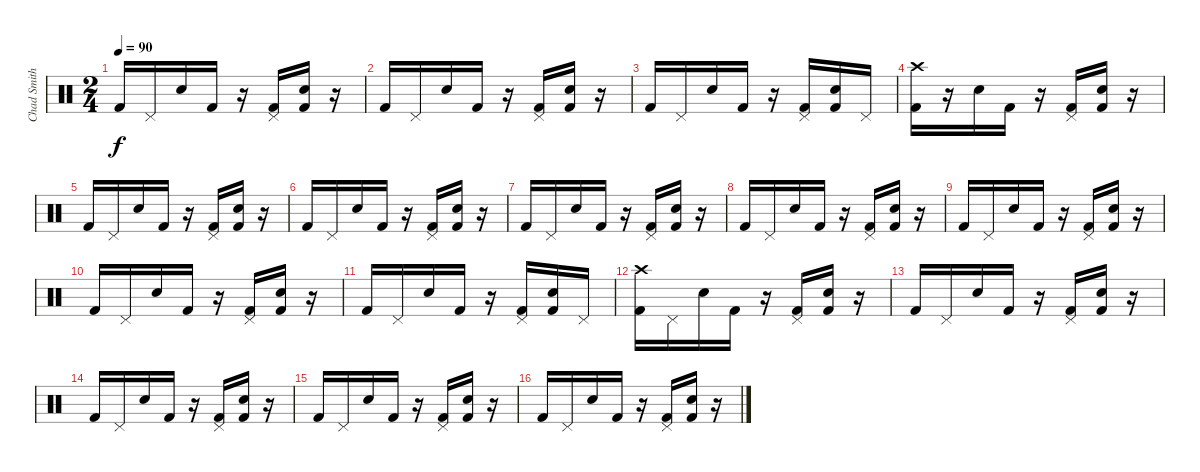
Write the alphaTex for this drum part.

\track ("Chad Smith" "Chad Smith") {instrument percussion}
\staff {score}
\articulation defaults
\ts (2 4)
\tempo 90
\clef neutral
\ks c "Kick (hit) 2".16{dy f} "Pedal Hi-Hat (hit)".16 "Electric Snare (hit)".16 "Kick (hit) 2".16
r.16 ("Pedal Hi-Hat (hit)" "Kick (hit) 2").16 ("Electric Snare (hit)" "Kick (hit) 2").16 r.16 |
"Kick (hit) 2".16 "Pedal Hi-Hat (hit)".16 "Electric Snare (hit)".16 "Kick (hit) 2".16 r.16 ("Pedal Hi-Hat (hit)" "Kick (hit) 2").16 ("Electric Snare (hit)" "Kick (hit) 2").16 r.16 |
"Kick (hit) 2".16 "Pedal Hi-Hat (hit)".16 "Electric Snare (hit)".16 "Kick (hit) 2".16 r.16 ("Pedal Hi-Hat (hit)" "Kick (hit) 2").16 ("Electric Snare (hit)" "Kick (hit) 2").16 "Pedal Hi-Hat (hit)".16 |
("Crash high (hit)" "Kick (hit) 2").16 r.16 "Electric Snare (hit)".16 "Kick (hit) 2".16 r.16 ("Pedal Hi-Hat (hit)" "Kick (hit) 2").16 ("Electric Snare (hit)" "Kick (hit) 2").16 r.16 |
"Kick (hit) 2".16 "Pedal Hi-Hat (hit)".16 "Electric Snare (hit)".16 "Kick (hit) 2".16 r.16 ("Pedal Hi-Hat (hit)" "Kick (hit) 2").16 ("Electric Snare (hit)" "Kick (hit) 2").16 r.16 |
"Kick (hit) 2".16 "Pedal Hi-Hat (hit)".16 "Electric Snare (hit)".16 "Kick (hit) 2".16 r.16 ("Pedal Hi-Hat (hit)" "Kick (hit) 2").16 ("Electric Snare (hit)" "Kick (hit) 2").16 r.16 |
"Kick (hit) 2".16 "Pedal Hi-Hat (hit)".16 "Electric Snare (hit)".16 "Kick (hit) 2".16 r.16 ("Pedal Hi-Hat (hit)" "Kick (hit) 2").16 ("Electric Snare (hit)" "Kick (hit) 2").16 r.16 |
"Kick (hit) 2".16 "Pedal Hi-Hat (hit)".16 "Electric Snare (hit)".16 "Kick (hit) 2".16 r.16 ("Pedal Hi-Hat (hit)" "Kick (hit) 2").16 ("Electric Snare (hit)" "Kick (hit) 2").16 r.16 |
"Kick (hit) 2".16 "Pedal Hi-Hat (hit)".16 "Electric Snare (hit)".16 "Kick (hit) 2".16 r.16 ("Pedal Hi-Hat (hit)" "Kick (hit) 2").16 ("Electric Snare (hit)" "Kick (hit) 2").16 r.16 |
"Kick (hit) 2".16 "Pedal Hi-Hat (hit)".16 "Electric Snare (hit)".16 "Kick (hit) 2".16 r.16 ("Pedal Hi-Hat (hit)" "Kick (hit) 2").16 ("Electric Snare (hit)" "Kick (hit) 2").16 r.16 |
"Kick (hit) 2".16 "Pedal Hi-Hat (hit)".16 "Electric Snare (hit)".16 "Kick (hit) 2".16 r.16 ("Pedal Hi-Hat (hit)" "Kick (hit) 2").16 ("Electric Snare (hit)" "Kick (hit) 2").16 "Pedal Hi-Hat (hit)".16 |
("Crash high (hit)" "Kick (hit) 2").16 "Pedal Hi-Hat (hit)".16 "Electric Snare (hit)".16 "Kick (hit) 2".16 r.16 ("Pedal Hi-Hat (hit)" "Kick (hit) 2").16 ("Electric Snare (hit)" "Kick (hit) 2").16 r.16 |
"Kick (hit) 2".16 "Pedal Hi-Hat (hit)".16 "Electric Snare (hit)".16 "Kick (hit) 2".16 r.16 ("Pedal Hi-Hat (hit)" "Kick (hit) 2").16 ("Electric Snare (hit)" "Kick (hit) 2").16 r.16 |
"Kick (hit) 2".16 "Pedal Hi-Hat (hit)".16 "Electric Snare (hit)".16 "Kick (hit) 2".16 r.16 ("Pedal Hi-Hat (hit)" "Kick (hit) 2").16 ("Electric Snare (hit)" "Kick (hit) 2").16 r.16 |
"Kick (hit) 2".16 "Pedal Hi-Hat (hit)".16 "Electric Snare (hit)".16 "Kick (hit) 2".16 r.16 ("Pedal Hi-Hat (hit)" "Kick (hit) 2").16 ("Electric Snare (hit)" "Kick (hit) 2").16 r.16 |
"Kick (hit) 2".16 "Pedal Hi-Hat (hit)".16 "Electric Snare (hit)".16 "Kick (hit) 2".16 r.16 ("Pedal Hi-Hat (hit)" "Kick (hit) 2").16 ("Electric Snare (hit)" "Kick (hit) 2").16 r.16
